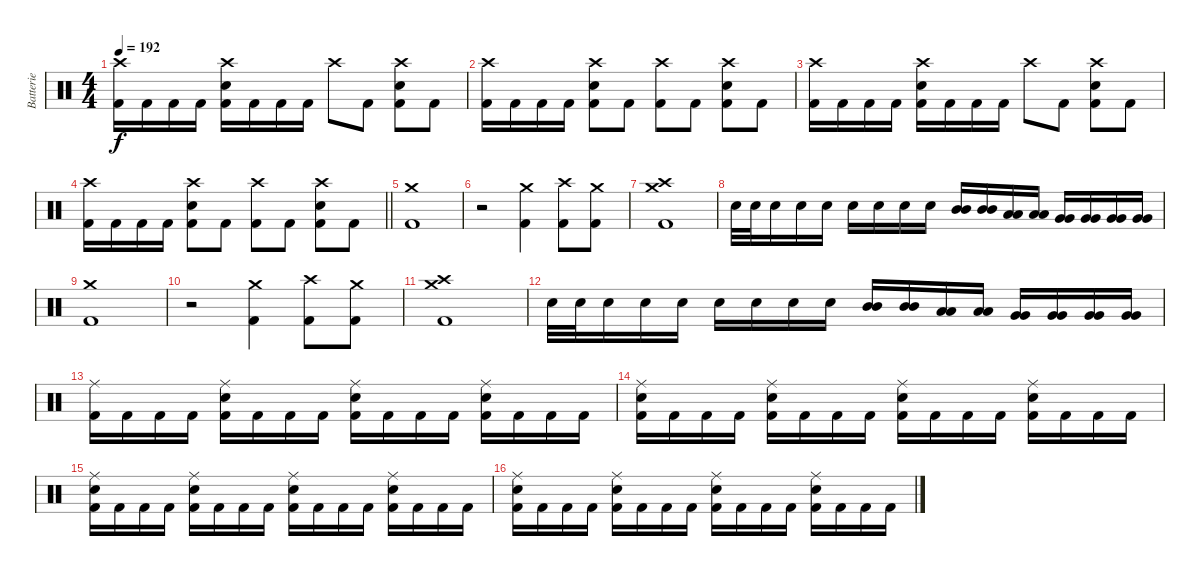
\track ("Batterie" "Batterie") {instrument percussion}
\staff {score}
\articulation defaults
\ts (4 4)
\tempo 192
\clef neutral
\ks c
("Crash high (hit)" "Kick (hit) 2").16{dy f} "Kick (hit) 2".16 "Kick (hit) 2".16 "Kick (hit) 2".16 ("Crash high (hit)" "Snare (hit) 2" "Kick (hit) 2").16 "Kick (hit) 2".16 "Kick (hit) 2".16 "Kick (hit) 2".16 "Crash high (hit)".8 "Kick (hit) 2".8 ("Crash high (hit)" "Snare (hit) 2" "Kick (hit) 2").8 "Kick (hit) 2".8 |
("Crash high (hit)" "Kick (hit) 2").16 "Kick (hit) 2".16 "Kick (hit) 2".16 "Kick (hit) 2".16 ("Crash high (hit)" "Snare (hit) 2" "Kick (hit) 2").8 "Kick (hit) 2".8 ("Crash high (hit)" "Kick (hit) 2").8 "Kick (hit) 2".8 ("Crash high (hit)" "Snare (hit) 2" "Kick (hit) 2").8 "Kick (hit) 2".8 |
("Crash high (hit)" "Kick (hit) 2").16 "Kick (hit) 2".16 "Kick (hit) 2".16 "Kick (hit) 2".16 ("Crash high (hit)" "Snare (hit) 2" "Kick (hit) 2").16 "Kick (hit) 2".16 "Kick (hit) 2".16 "Kick (hit) 2".16 "Crash high (hit)".8 "Kick (hit) 2".8 ("Crash high (hit)" "Snare (hit) 2" "Kick (hit) 2").8 "Kick (hit) 2".8 |
\barLineRight lightlight
("Crash high (hit)" "Kick (hit) 2").16 "Kick (hit) 2".16 "Kick (hit) 2".16 "Kick (hit) 2".16 ("Crash high (hit)" "Snare (hit) 2" "Kick (hit) 2").8 "Kick (hit) 2".8 ("Crash high (hit)" "Kick (hit) 2").8 "Kick (hit) 2".8 ("Crash high (hit)" "Snare (hit) 2" "Kick (hit) 2").8 "Kick (hit) 2".8 |
\section ("" "")
("Crash medium (hit)" "Kick (hit) 2").1 |
r.2 ("Crash medium (hit)" "Kick (hit) 2").4 ("Crash high (hit)" "Kick (hit) 2").8 ("Crash medium (hit)" "Kick (hit) 2").8 |
("Crash high (hit)" "Crash medium (hit)" "Kick (hit) 2").1 |
"Snare (hit) 2".32 "Snare (hit) 2".32 "Snare (hit) 2".16 "Snare (hit) 2".16 "Snare (hit) 2".16 "Snare (hit) 2".16 "Snare (hit) 2".16 "Snare (hit) 2".16 "Snare (hit) 2".16 ("Mid Tom (hit)" "Mid Tom (hit)").16 ("Mid Tom (hit)" "Mid Tom (hit)").16 ("Low Tom (hit)" "Low Tom (hit)").16 ("Low Tom (hit)" "Low Tom (hit)").16 ("Very Low Tom (hit)" "Very Low Tom (hit)").16 ("Very Low Tom (hit)" "Very Low Tom (hit)").16 ("Very Low Tom (hit)" "Very Low Tom (hit)").16 ("Very Low Tom (hit)" "Very Low Tom (hit)").16 |
("Crash medium (hit)" "Kick (hit) 2").1 |
r.2 ("Crash medium (hit)" "Kick (hit) 2").4 ("Crash high (hit)" "Kick (hit) 2").8 ("Crash medium (hit)" "Kick (hit) 2").8 |
("Crash high (hit)" "Crash medium (hit)" "Kick (hit) 2").1 |
"Snare (hit) 2".32 "Snare (hit) 2".32 "Snare (hit) 2".16 "Snare (hit) 2".16 "Snare (hit) 2".16 "Snare (hit) 2".16 "Snare (hit) 2".16 "Snare (hit) 2".16 "Snare (hit) 2".16 ("Mid Tom (hit)" "Mid Tom (hit)").16 ("Mid Tom (hit)" "Mid Tom (hit)").16 ("Low Tom (hit)" "Low Tom (hit)").16 ("Low Tom (hit)" "Low Tom (hit)").16 ("Very Low Tom (hit)" "Very Low Tom (hit)").16 ("Very Low Tom (hit)" "Very Low Tom (hit)").16 ("Very Low Tom (hit)" "Very Low Tom (hit)").16 ("Very Low Tom (hit)" "Very Low Tom (hit)").16 |
("Ride (middle)" "Kick (hit) 2").16 "Kick (hit) 2".16 "Kick (hit) 2".16 "Kick (hit) 2".16 ("Ride (middle)" "Snare (hit) 2" "Kick (hit) 2").16 "Kick (hit) 2".16 "Kick (hit) 2".16 "Kick (hit) 2".16 ("Ride (middle)" "Snare (hit) 2" "Kick (hit) 2").16 "Kick (hit) 2".16 "Kick (hit) 2".16 "Kick (hit) 2".16 ("Ride (middle)" "Snare (hit) 2" "Kick (hit) 2").16 "Kick (hit) 2".16 "Kick (hit) 2".16 "Kick (hit) 2".16 |
("Ride (middle)" "Snare (hit) 2" "Kick (hit) 2").16 "Kick (hit) 2".16 "Kick (hit) 2".16 "Kick (hit) 2".16 ("Ride (middle)" "Snare (hit) 2" "Kick (hit) 2").16 "Kick (hit) 2".16 "Kick (hit) 2".16 "Kick (hit) 2".16 ("Ride (middle)" "Snare (hit) 2" "Kick (hit) 2").16 "Kick (hit) 2".16 "Kick (hit) 2".16 "Kick (hit) 2".16 ("Ride (middle)" "Snare (hit) 2" "Kick (hit) 2").16 "Kick (hit) 2".16 "Kick (hit) 2".16 "Kick (hit) 2".16 |
("Ride (middle)" "Snare (hit) 2" "Kick (hit) 2").16 "Kick (hit) 2".16 "Kick (hit) 2".16 "Kick (hit) 2".16 ("Ride (middle)" "Snare (hit) 2" "Kick (hit) 2").16 "Kick (hit) 2".16 "Kick (hit) 2".16 "Kick (hit) 2".16 ("Ride (middle)" "Snare (hit) 2" "Kick (hit) 2").16 "Kick (hit) 2".16 "Kick (hit) 2".16 "Kick (hit) 2".16 ("Ride (middle)" "Snare (hit) 2" "Kick (hit) 2").16 "Kick (hit) 2".16 "Kick (hit) 2".16 "Kick (hit) 2".16 |
("Ride (middle)" "Snare (hit) 2" "Kick (hit) 2").16 "Kick (hit) 2".16 "Kick (hit) 2".16 "Kick (hit) 2".16 ("Ride (middle)" "Snare (hit) 2" "Kick (hit) 2").16 "Kick (hit) 2".16 "Kick (hit) 2".16 "Kick (hit) 2".16 ("Ride (middle)" "Snare (hit) 2" "Kick (hit) 2").16 "Kick (hit) 2".16 "Kick (hit) 2".16 "Kick (hit) 2".16 ("Ride (middle)" "Snare (hit) 2" "Kick (hit) 2").16 "Kick (hit) 2".16 "Kick (hit) 2".16 "Kick (hit) 2".16
